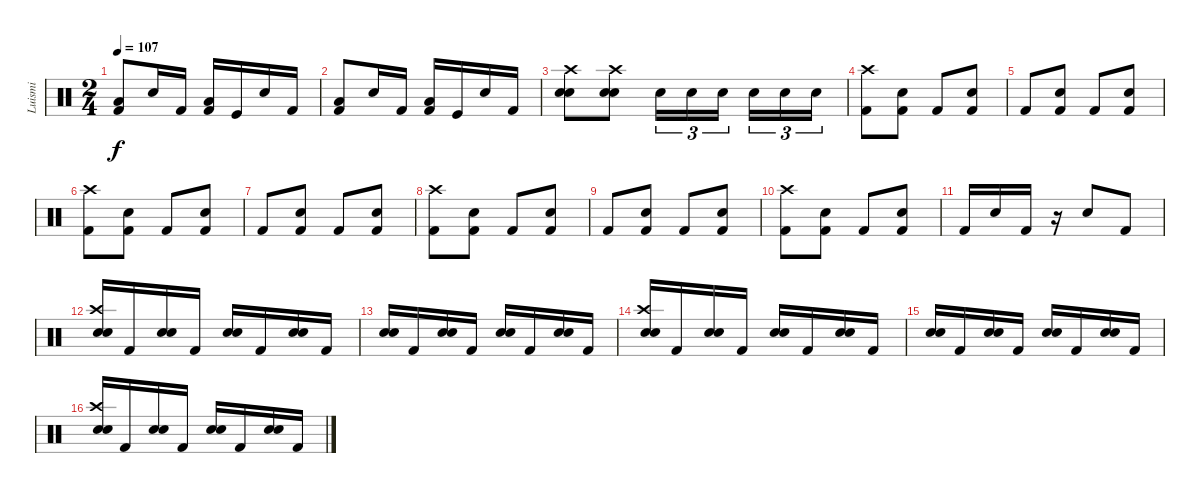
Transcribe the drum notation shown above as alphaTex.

\track ("Luismi" "Luismi") {instrument percussion}
\staff {score}
\articulation defaults
\ts (2 4)
\tempo 107
\clef neutral
\ks c
("Low Tom (hit)" "Kick (hit) 2").8{dy f} "Electric Snare (hit)".16 "Kick (hit) 2".16 ("Low Tom (hit)" "Kick (hit) 2").16 "Kick (hit)".16 "Electric Snare (hit)".16 "Kick (hit) 2".16 |
("Low Tom (hit)" "Kick (hit) 2").8 "Electric Snare (hit)".16 "Kick (hit) 2".16 ("Low Tom (hit)" "Kick (hit) 2").16 "Kick (hit)".16 "Electric Snare (hit)".16 "Kick (hit) 2".16 |
("Crash high (hit)" "Snare (hit) 2" "Electric Snare (hit)").8 ("Crash high (hit)" "Snare (hit) 2" "Electric Snare (hit)").8 "Snare (hit) 2".16{tu (3 2)} "Snare (hit) 2".16{tu (3 2)} "Snare (hit) 2".16{tu (3 2)} "Snare (hit) 2".16{tu (3 2)} "Snare (hit) 2".16{tu (3 2)} "Snare (hit) 2".16{tu (3 2)} |
("Crash high (hit)" "Kick (hit) 2").8 ("Snare (hit) 2" "Kick (hit) 2").8 "Kick (hit) 2".8 ("Snare (hit) 2" "Kick (hit) 2").8 |
"Kick (hit) 2".8 ("Snare (hit) 2" "Kick (hit) 2").8 "Kick (hit) 2".8 ("Snare (hit) 2" "Kick (hit) 2").8 |
("Crash high (hit)" "Kick (hit) 2").8 ("Snare (hit) 2" "Kick (hit) 2").8 "Kick (hit) 2".8 ("Snare (hit) 2" "Kick (hit) 2").8 |
"Kick (hit) 2".8 ("Snare (hit) 2" "Kick (hit) 2").8 "Kick (hit) 2".8 ("Snare (hit) 2" "Kick (hit) 2").8 |
("Crash high (hit)" "Kick (hit) 2").8 ("Snare (hit) 2" "Kick (hit) 2").8 "Kick (hit) 2".8 ("Snare (hit) 2" "Kick (hit) 2").8 |
"Kick (hit) 2".8 ("Snare (hit) 2" "Kick (hit) 2").8 "Kick (hit) 2".8 ("Snare (hit) 2" "Kick (hit) 2").8 |
("Crash high (hit)" "Kick (hit) 2").8 ("Snare (hit) 2" "Kick (hit) 2").8 "Kick (hit) 2".8 ("Snare (hit) 2" "Kick (hit) 2").8 |
"Kick (hit) 2".16 "Electric Snare (hit)".16 "Kick (hit) 2".16 r.16 "Electric Snare (hit)".8 "Kick (hit) 2".8 |
("Crash high (hit)" "Snare (hit) 2" "Electric Snare (hit)").16 "Kick (hit) 2".16 ("Snare (hit) 2" "Electric Snare (hit)").16 "Kick (hit) 2".16 ("Snare (hit) 2" "Electric Snare (hit)").16 "Kick (hit) 2".16 ("Snare (hit) 2" "Electric Snare (hit)").16 "Kick (hit) 2".16 |
("Snare (hit) 2" "Electric Snare (hit)").16 "Kick (hit) 2".16 ("Snare (hit) 2" "Electric Snare (hit)").16 "Kick (hit) 2".16 ("Snare (hit) 2" "Electric Snare (hit)").16 "Kick (hit) 2".16 ("Snare (hit) 2" "Electric Snare (hit)").16 "Kick (hit) 2".16 |
("Crash high (hit)" "Snare (hit) 2" "Electric Snare (hit)").16 "Kick (hit) 2".16 ("Snare (hit) 2" "Electric Snare (hit)").16 "Kick (hit) 2".16 ("Snare (hit) 2" "Electric Snare (hit)").16 "Kick (hit) 2".16 ("Snare (hit) 2" "Electric Snare (hit)").16 "Kick (hit) 2".16 |
("Snare (hit) 2" "Electric Snare (hit)").16 "Kick (hit) 2".16 ("Snare (hit) 2" "Electric Snare (hit)").16 "Kick (hit) 2".16 ("Snare (hit) 2" "Electric Snare (hit)").16 "Kick (hit) 2".16 ("Snare (hit) 2" "Electric Snare (hit)").16 "Kick (hit) 2".16 |
("Crash high (hit)" "Snare (hit) 2" "Electric Snare (hit)").16 "Kick (hit) 2".16 ("Snare (hit) 2" "Electric Snare (hit)").16 "Kick (hit) 2".16 ("Snare (hit) 2" "Electric Snare (hit)").16 "Kick (hit) 2".16 ("Snare (hit) 2" "Electric Snare (hit)").16 "Kick (hit) 2".16
